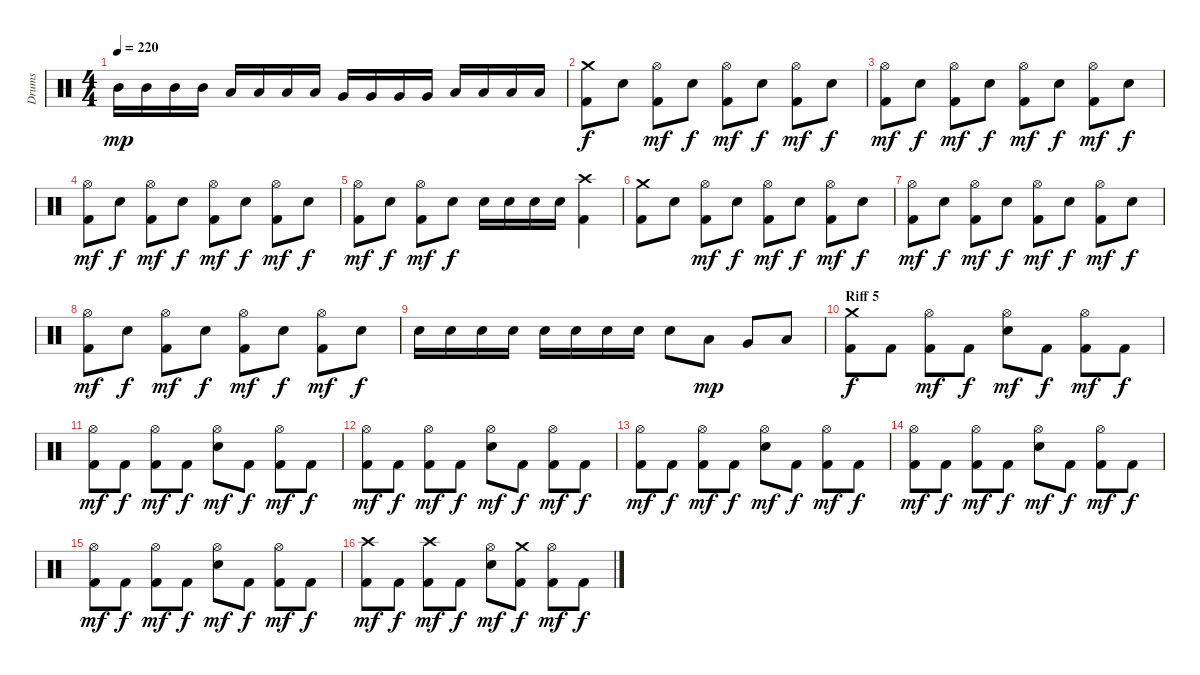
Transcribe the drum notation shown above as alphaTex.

\track ("Drums" "Drums") {instrument percussion}
\staff {score}
\articulation defaults
\ts (4 4)
\tempo 220
\clef neutral
\ks c "Mid Tom (hit)".16{dy mp} "Mid Tom (hit)".16 "Mid Tom (hit)".16 "Mid Tom (hit)".16 "Low Tom (hit)".16 "Low Tom (hit)".16 "Low Tom (hit)".16 "Low Tom (hit)".16 "Very Low Tom (hit)".16 "Very Low Tom (hit)".16 "Very Low Tom (hit)".16 "Very Low Tom (hit)".16 "Low Floor Tom (hit)".16 "Low Floor Tom (hit)".16 "Low Floor Tom (hit)".16 "Low Floor Tom (hit)".16
|
("Crash medium (hit)" "Kick (hit) 2").8{dy f} "Electric Snare (hit)".8 ("Hi-Hat (open)" "Kick (hit) 2").8{dy mf} "Electric Snare (hit)".8{dy f} ("Hi-Hat (open)" "Kick (hit) 2").8{dy mf} "Electric Snare (hit)".8{dy f} ("Hi-Hat (open)" "Kick (hit) 2").8{dy mf} "Electric Snare (hit)".8{dy f} |
("Hi-Hat (open)" "Kick (hit) 2").8{dy mf} "Electric Snare (hit)".8{dy f} ("Hi-Hat (open)" "Kick (hit) 2").8{dy mf} "Electric Snare (hit)".8{dy f} ("Hi-Hat (open)" "Kick (hit) 2").8{dy mf} "Electric Snare (hit)".8{dy f} ("Hi-Hat (open)" "Kick (hit) 2").8{dy mf} "Electric Snare (hit)".8{dy f} |
("Hi-Hat (open)" "Kick (hit) 2").8{dy mf} "Electric Snare (hit)".8{dy f} ("Hi-Hat (open)" "Kick (hit) 2").8{dy mf} "Electric Snare (hit)".8{dy f} ("Hi-Hat (open)" "Kick (hit) 2").8{dy mf} "Electric Snare (hit)".8{dy f} ("Hi-Hat (open)" "Kick (hit) 2").8{dy mf} "Electric Snare (hit)".8{dy f} |
("Hi-Hat (open)" "Kick (hit) 2").8{dy mf} "Electric Snare (hit)".8{dy f} ("Hi-Hat (open)" "Kick (hit) 2").8{dy mf} "Electric Snare (hit)".8{dy f} "Electric Snare (hit)".16 "Electric Snare (hit)".16 "Electric Snare (hit)".16 "Electric Snare (hit)".16 ("Crash high (hit)" "Kick (hit) 2").4 |
("Crash medium (hit)" "Kick (hit) 2").8 "Electric Snare (hit)".8 ("Hi-Hat (open)" "Kick (hit) 2").8{dy mf} "Electric Snare (hit)".8{dy f} ("Hi-Hat (open)" "Kick (hit) 2").8{dy mf} "Electric Snare (hit)".8{dy f} ("Hi-Hat (open)" "Kick (hit) 2").8{dy mf} "Electric Snare (hit)".8{dy f} |
("Hi-Hat (open)" "Kick (hit) 2").8{dy mf} "Electric Snare (hit)".8{dy f} ("Hi-Hat (open)" "Kick (hit) 2").8{dy mf} "Electric Snare (hit)".8{dy f} ("Hi-Hat (open)" "Kick (hit) 2").8{dy mf} "Electric Snare (hit)".8{dy f} ("Hi-Hat (open)" "Kick (hit) 2").8{dy mf} "Electric Snare (hit)".8{dy f} |
("Hi-Hat (open)" "Kick (hit) 2").8{dy mf} "Electric Snare (hit)".8{dy f} ("Hi-Hat (open)" "Kick (hit) 2").8{dy mf} "Electric Snare (hit)".8{dy f} ("Hi-Hat (open)" "Kick (hit) 2").8{dy mf} "Electric Snare (hit)".8{dy f} ("Hi-Hat (open)" "Kick (hit) 2").8{dy mf} "Electric Snare (hit)".8{dy f} |
"Electric Snare (hit)".16 "Electric Snare (hit)".16 "Electric Snare (hit)".16 "Electric Snare (hit)".16 "Electric Snare (hit)".16 "Electric Snare (hit)".16 "Electric Snare (hit)".16 "Electric Snare (hit)".16 "Electric Snare (hit)".8 "Low Tom (hit)".8{dy mp} "Very Low Tom (hit)".8 "Low Floor Tom (hit)".8 |
\section ("" "Riff 5")
("Crash medium (hit)" "Kick (hit) 2").8{dy f} "Kick (hit) 2".8 ("Hi-Hat (open)" "Kick (hit) 2").8{dy mf} "Kick (hit) 2".8{dy f} ("Hi-Hat (open)" "Electric Snare (hit)").8{dy mf} "Kick (hit) 2".8{dy f} ("Hi-Hat (open)" "Kick (hit) 2").8{dy mf} "Kick (hit) 2".8{dy f} |
("Hi-Hat (open)" "Kick (hit) 2").8{dy mf} "Kick (hit) 2".8{dy f} ("Hi-Hat (open)" "Kick (hit) 2").8{dy mf} "Kick (hit) 2".8{dy f} ("Hi-Hat (open)" "Electric Snare (hit)").8{dy mf} "Kick (hit) 2".8{dy f} ("Hi-Hat (open)" "Kick (hit) 2").8{dy mf} "Kick (hit) 2".8{dy f} |
("Hi-Hat (open)" "Kick (hit) 2").8{dy mf} "Kick (hit) 2".8{dy f} ("Hi-Hat (open)" "Kick (hit) 2").8{dy mf} "Kick (hit) 2".8{dy f} ("Hi-Hat (open)" "Electric Snare (hit)").8{dy mf} "Kick (hit) 2".8{dy f} ("Hi-Hat (open)" "Kick (hit) 2").8{dy mf} "Kick (hit) 2".8{dy f} |
("Hi-Hat (open)" "Kick (hit) 2").8{dy mf} "Kick (hit) 2".8{dy f} ("Hi-Hat (open)" "Kick (hit) 2").8{dy mf} "Kick (hit) 2".8{dy f} ("Hi-Hat (open)" "Electric Snare (hit)").8{dy mf} "Kick (hit) 2".8{dy f} ("Hi-Hat (open)" "Kick (hit) 2").8{dy mf} "Kick (hit) 2".8{dy f} |
("Hi-Hat (open)" "Kick (hit) 2").8{dy mf} "Kick (hit) 2".8{dy f} ("Hi-Hat (open)" "Kick (hit) 2").8{dy mf} "Kick (hit) 2".8{dy f} ("Hi-Hat (open)" "Electric Snare (hit)").8{dy mf} "Kick (hit) 2".8{dy f} ("Hi-Hat (open)" "Kick (hit) 2").8{dy mf} "Kick (hit) 2".8{dy f} |
("Hi-Hat (open)" "Kick (hit) 2").8{dy mf} "Kick (hit) 2".8{dy f} ("Hi-Hat (open)" "Kick (hit) 2").8{dy mf} "Kick (hit) 2".8{dy f} ("Hi-Hat (open)" "Electric Snare (hit)").8{dy mf} "Kick (hit) 2".8{dy f} ("Hi-Hat (open)" "Kick (hit) 2").8{dy mf} "Kick (hit) 2".8{dy f} |
("Crash high (hit)" "Kick (hit) 2").8{dy mf} "Kick (hit) 2".8{dy f} ("Crash high (hit)" "Kick (hit) 2").8{dy mf} "Kick (hit) 2".8{dy f} ("Hi-Hat (open)" "Electric Snare (hit)").8{dy mf} ("Crash medium (hit)" "Kick (hit) 2").8{dy f} ("Hi-Hat (open)" "Kick (hit) 2").8{dy mf} "Kick (hit) 2".8{dy f}
